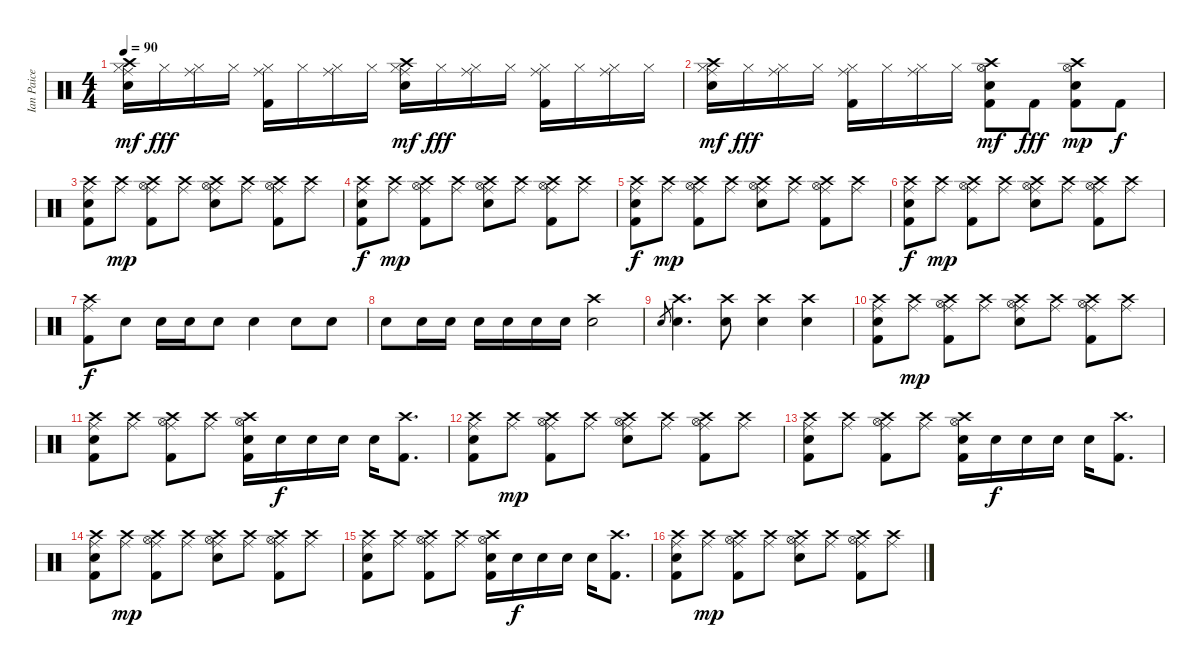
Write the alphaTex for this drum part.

\track ("Ian Paice (Percusion)" "Ian Paice ") {instrument percussion}
\staff {score}
\articulation defaults
\ts (4 4)
\tempo 90
\clef neutral
\ks c
("Electric Snare (hit)" "Ride (middle)" "Hi-Hat (closed)" "Crash high (hit)").16{dy mf} "Hi-Hat (closed)".16{dy fff} ("Ride (middle)" "Hi-Hat (closed)").16 "Hi-Hat (closed)".16 ("Ride (middle)" "Hi-Hat (closed)" "Kick (hit) 2").16 "Hi-Hat (closed)".16 ("Ride (middle)" "Hi-Hat (closed)").16 "Hi-Hat (closed)".16 ("Electric Snare (hit)" "Ride (middle)" "Hi-Hat (closed)" "Crash high (hit)").16{dy mf} "Hi-Hat (closed)".16{dy fff} ("Ride (middle)" "Hi-Hat (closed)").16 "Hi-Hat (closed)".16 ("Ride (middle)" "Hi-Hat (closed)" "Kick (hit) 2").16 "Hi-Hat (closed)".16 ("Ride (middle)" "Hi-Hat (closed)").16 "Hi-Hat (closed)".16 |
("Electric Snare (hit)" "Ride (middle)" "Hi-Hat (closed)" "Crash high (hit)").16{dy mf} "Hi-Hat (closed)".16{dy fff} ("Ride (middle)" "Hi-Hat (closed)").16 "Hi-Hat (closed)".16 ("Ride (middle)" "Hi-Hat (closed)" "Kick (hit) 2").16 "Hi-Hat (closed)".16 ("Ride (middle)" "Hi-Hat (closed)").16 "Hi-Hat (closed)".16 ("Electric Snare (hit)" "Hi-Hat (open)" "Kick (hit) 2" "Crash high (hit)").8{dy mf} "Kick (hit) 2".8{dy fff} ("Electric Snare (hit)" "Hi-Hat (open)" "Kick (hit) 2" "Crash high (hit)").8{dy mp} "Kick (hit) 2".8{dy f} |
("Kick (hit) 2" "Crash high (hit)" "Ride (middle)" "Electric Snare (hit)").8 ("Crash high (hit)" "Ride (middle)").8{dy mp} ("Hi-Hat (open)" "Crash high (hit)" "Ride (middle)" "Kick (hit) 2").8 ("Crash high (hit)" "Ride (middle)").8 ("Hi-Hat (open)" "Crash high (hit)" "Ride (middle)" "Electric Snare (hit)").8 ("Crash high (hit)" "Ride (middle)").8 ("Hi-Hat (open)" "Crash high (hit)" "Ride (middle)" "Kick (hit) 2").8 ("Crash high (hit)" "Ride (middle)").8 |
("Kick (hit) 2" "Crash high (hit)" "Ride (middle)" "Electric Snare (hit)").8{dy f} ("Crash high (hit)" "Ride (middle)").8{dy mp} ("Hi-Hat (open)" "Crash high (hit)" "Ride (middle)" "Kick (hit) 2").8 ("Crash high (hit)" "Ride (middle)").8 ("Hi-Hat (open)" "Crash high (hit)" "Ride (middle)" "Electric Snare (hit)").8 ("Crash high (hit)" "Ride (middle)").8 ("Hi-Hat (open)" "Crash high (hit)" "Ride (middle)" "Kick (hit) 2").8 ("Crash high (hit)" "Ride (middle)").8 |
("Kick (hit) 2" "Crash high (hit)" "Ride (middle)" "Electric Snare (hit)").8{dy f} ("Crash high (hit)" "Ride (middle)").8{dy mp} ("Hi-Hat (open)" "Crash high (hit)" "Ride (middle)" "Kick (hit) 2").8 ("Crash high (hit)" "Ride (middle)").8 ("Hi-Hat (open)" "Crash high (hit)" "Ride (middle)" "Electric Snare (hit)").8 ("Crash high (hit)" "Ride (middle)").8 ("Hi-Hat (open)" "Crash high (hit)" "Ride (middle)" "Kick (hit) 2").8 ("Crash high (hit)" "Ride (middle)").8 |
("Kick (hit) 2" "Crash high (hit)" "Ride (middle)" "Electric Snare (hit)").8{dy f} ("Crash high (hit)" "Ride (middle)").8{dy mp} ("Hi-Hat (open)" "Crash high (hit)" "Ride (middle)" "Kick (hit) 2").8 ("Crash high (hit)" "Ride (middle)").8 ("Hi-Hat (open)" "Crash high (hit)" "Ride (middle)" "Electric Snare (hit)").8 ("Crash high (hit)" "Ride (middle)").8 ("Hi-Hat (open)" "Crash high (hit)" "Ride (middle)" "Kick (hit) 2").8 ("Crash high (hit)" "Ride (middle)").8 |
("Crash high (hit)" "Ride (middle)" "Kick (hit) 2").8{dy f} "Electric Snare (hit)".8 "Electric Snare (hit)".16 "Electric Snare (hit)".16 "Electric Snare (hit)".8 "Electric Snare (hit)".4 "Electric Snare (hit)".8 "Electric Snare (hit)".8 |
"Electric Snare (hit)".8 "Electric Snare (hit)".16 "Electric Snare (hit)".16 "Electric Snare (hit)".16 "Electric Snare (hit)".16 "Electric Snare (hit)".16 "Electric Snare (hit)".16 ("Crash high (hit)" "Electric Snare (hit)").2 |
"Electric Snare (hit)".8{gr} ("Crash high (hit)" "Electric Snare (hit)").4{d} ("Crash high (hit)" "Electric Snare (hit)").8 ("Crash high (hit)" "Electric Snare (hit)").4 ("Crash high (hit)" "Electric Snare (hit)").4 |
("Kick (hit) 2" "Crash high (hit)" "Ride (middle)" "Electric Snare (hit)").8 ("Crash high (hit)" "Ride (middle)").8{dy mp} ("Hi-Hat (open)" "Crash high (hit)" "Ride (middle)" "Kick (hit) 2").8 ("Crash high (hit)" "Ride (middle)").8 ("Hi-Hat (open)" "Crash high (hit)" "Ride (middle)" "Electric Snare (hit)").8 ("Crash high (hit)" "Ride (middle)").8 ("Hi-Hat (open)" "Crash high (hit)" "Ride (middle)" "Kick (hit) 2").8 ("Crash high (hit)" "Ride (middle)").8 |
("Kick (hit) 2" "Crash high (hit)" "Ride (middle)" "Electric Snare (hit)").8 ("Crash high (hit)" "Ride (middle)").8 ("Hi-Hat (open)" "Crash high (hit)" "Ride (middle)" "Kick (hit) 2").8 ("Crash high (hit)" "Ride (middle)").8 ("Crash high (hit)" "Hi-Hat (open)" "Kick (hit) 2" "Electric Snare (hit)").16 "Electric Snare (hit)".16{dy f} "Electric Snare (hit)".16 "Electric Snare (hit)".16 "Electric Snare (hit)".16 ("Crash high (hit)" "Kick (hit) 2").8{d} |
("Kick (hit) 2" "Crash high (hit)" "Ride (middle)" "Electric Snare (hit)").8 ("Crash high (hit)" "Ride (middle)").8{dy mp} ("Hi-Hat (open)" "Crash high (hit)" "Ride (middle)" "Kick (hit) 2").8 ("Crash high (hit)" "Ride (middle)").8 ("Hi-Hat (open)" "Crash high (hit)" "Ride (middle)" "Electric Snare (hit)").8 ("Crash high (hit)" "Ride (middle)").8 ("Hi-Hat (open)" "Crash high (hit)" "Ride (middle)" "Kick (hit) 2").8 ("Crash high (hit)" "Ride (middle)").8 |
("Kick (hit) 2" "Crash high (hit)" "Ride (middle)" "Electric Snare (hit)").8 ("Crash high (hit)" "Ride (middle)").8 ("Hi-Hat (open)" "Crash high (hit)" "Ride (middle)" "Kick (hit) 2").8 ("Crash high (hit)" "Ride (middle)").8 ("Crash high (hit)" "Hi-Hat (open)" "Kick (hit) 2" "Electric Snare (hit)").16 "Electric Snare (hit)".16{dy f} "Electric Snare (hit)".16 "Electric Snare (hit)".16 "Electric Snare (hit)".16 ("Crash high (hit)" "Kick (hit) 2").8{d} |
("Kick (hit) 2" "Crash high (hit)" "Ride (middle)" "Electric Snare (hit)").8 ("Crash high (hit)" "Ride (middle)").8{dy mp} ("Hi-Hat (open)" "Crash high (hit)" "Ride (middle)" "Kick (hit) 2").8 ("Crash high (hit)" "Ride (middle)").8 ("Hi-Hat (open)" "Crash high (hit)" "Ride (middle)" "Electric Snare (hit)").8 ("Crash high (hit)" "Ride (middle)").8 ("Hi-Hat (open)" "Crash high (hit)" "Ride (middle)" "Kick (hit) 2").8 ("Crash high (hit)" "Ride (middle)").8 |
("Kick (hit) 2" "Crash high (hit)" "Ride (middle)" "Electric Snare (hit)").8 ("Crash high (hit)" "Ride (middle)").8 ("Hi-Hat (open)" "Crash high (hit)" "Ride (middle)" "Kick (hit) 2").8 ("Crash high (hit)" "Ride (middle)").8 ("Crash high (hit)" "Hi-Hat (open)" "Kick (hit) 2" "Electric Snare (hit)").16 "Electric Snare (hit)".16{dy f} "Electric Snare (hit)".16 "Electric Snare (hit)".16 "Electric Snare (hit)".16 ("Crash high (hit)" "Kick (hit) 2").8{d} |
("Kick (hit) 2" "Crash high (hit)" "Ride (middle)" "Electric Snare (hit)").8 ("Crash high (hit)" "Ride (middle)").8{dy mp} ("Hi-Hat (open)" "Crash high (hit)" "Ride (middle)" "Kick (hit) 2").8 ("Crash high (hit)" "Ride (middle)").8 ("Hi-Hat (open)" "Crash high (hit)" "Ride (middle)" "Electric Snare (hit)").8 ("Crash high (hit)" "Ride (middle)").8 ("Hi-Hat (open)" "Crash high (hit)" "Ride (middle)" "Kick (hit) 2").8 ("Crash high (hit)" "Ride (middle)").8
